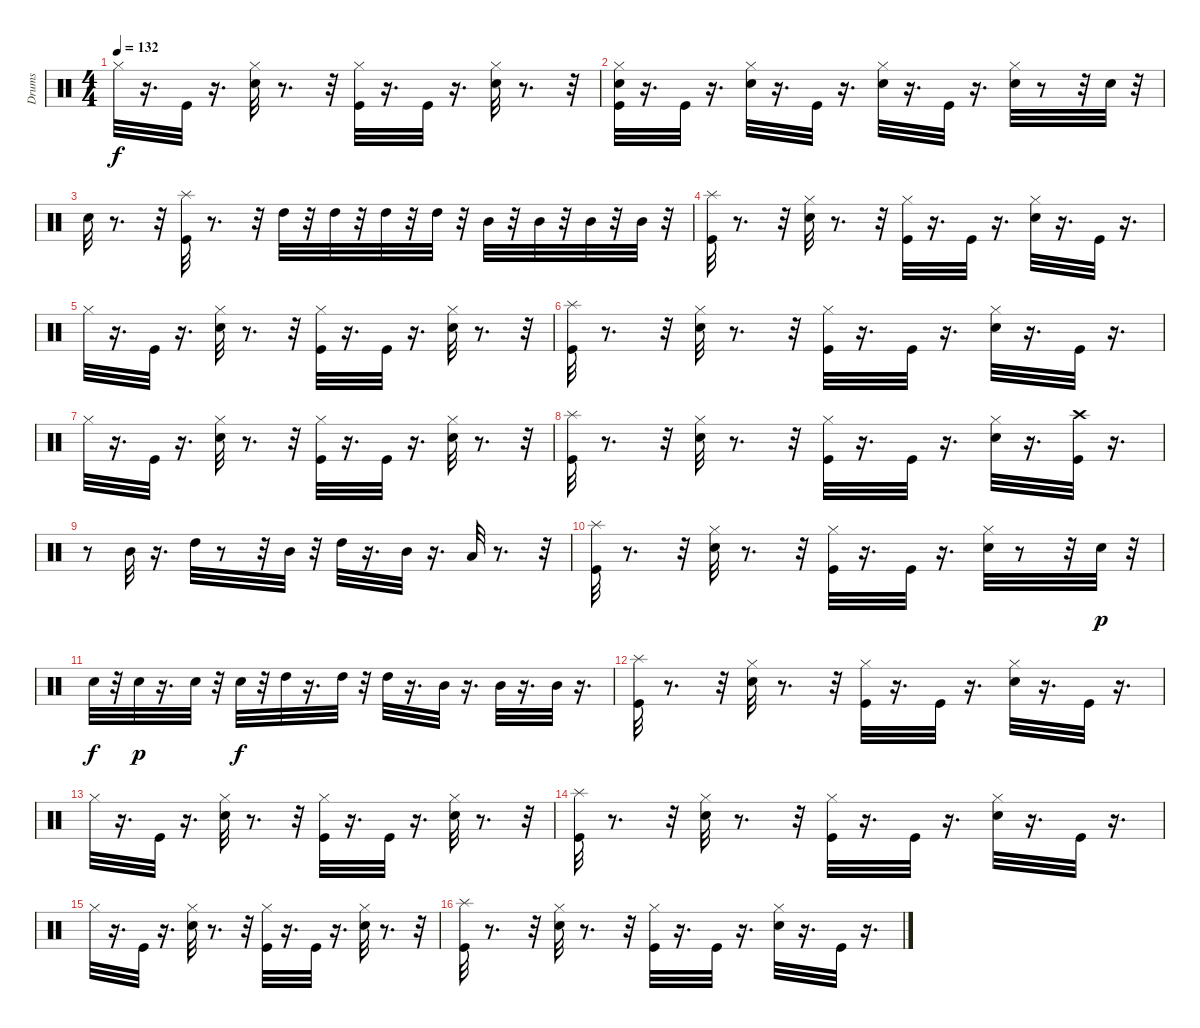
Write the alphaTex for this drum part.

\track ("Drums" "Drums") {instrument percussion}
\staff {score}
\articulation defaults
\ts (4 4)
\tempo 132
\clef neutral
\ks c "Hi-Hat (closed)".32{dy f}
r.16{d} "Kick (hit)".32 r.16{d} ("Hi-Hat (closed)" "Snare (hit) 2").32 r.8{d} r.32 ("Kick (hit)" "Hi-Hat (closed)").32 r.16{d} "Kick (hit)".32 r.16{d} ("Hi-Hat (closed)" "Snare (hit) 2").32 r.8{d} r.32 |
("Hi-Hat (closed)" "Snare (hit) 2" "Kick (hit)").32 r.16{d} "Kick (hit)".32 r.16{d} ("Hi-Hat (closed)" "Snare (hit) 2").32 r.16{d} "Kick (hit)".32 r.16{d} ("Hi-Hat (closed)" "Snare (hit) 2").32 r.16{d} "Kick (hit)".32 r.16{d} ("Hi-Hat (closed)" "Snare (hit) 2").32 r.8 r.32 "Snare (hit) 2".32 r.32 |
"Snare (hit) 2".32 r.8{d} r.32 ("Kick (hit)" "Splash (hit)").32 r.8{d} r.32 "High Tom (hit)".32 r.32 "High Tom (hit)".32 r.32 "High Tom (hit)".32 r.32 "High Tom (hit)".32 r.32 "Mid Tom (hit)".32 r.32 "Mid Tom (hit)".32 r.32 "Mid Tom (hit)".32 r.32 "Mid Tom (hit)".32 r.32 |
("Splash (hit)" "Kick (hit)").32 r.8{d} r.32 ("Hi-Hat (closed)" "Snare (hit) 2").32 r.8{d} r.32 ("Kick (hit)" "Hi-Hat (closed)").32 r.16{d} "Kick (hit)".32 r.16{d} ("Hi-Hat (closed)" "Snare (hit) 2").32 r.16{d} "Kick (hit)".32 r.16{d} |
"Hi-Hat (closed)".32 r.16{d} "Kick (hit)".32 r.16{d} ("Hi-Hat (closed)" "Snare (hit) 2").32 r.8{d} r.32 ("Hi-Hat (closed)" "Kick (hit)").32 r.16{d} "Kick (hit)".32 r.16{d} ("Snare (hit) 2" "Hi-Hat (closed)").32 r.8{d} r.32 |
("Splash (hit)" "Kick (hit)").32 r.8{d} r.32 ("Hi-Hat (closed)" "Snare (hit) 2").32 r.8{d} r.32 ("Kick (hit)" "Hi-Hat (closed)").32 r.16{d} "Kick (hit)".32 r.16{d} ("Hi-Hat (closed)" "Snare (hit) 2").32 r.16{d} "Kick (hit)".32 r.16{d} |
"Hi-Hat (closed)".32 r.16{d} "Kick (hit)".32 r.16{d} ("Hi-Hat (closed)" "Snare (hit) 2").32 r.8{d} r.32 ("Hi-Hat (closed)" "Kick (hit)").32 r.16{d} "Kick (hit)".32 r.16{d} ("Hi-Hat (closed)" "Snare (hit) 2").32 r.8{d} r.32 |
("Splash (hit)" "Kick (hit)").32 r.8{d} r.32 ("Hi-Hat (closed)" "Snare (hit) 2").32 r.8{d} r.32 ("Kick (hit)" "Hi-Hat (closed)").32 r.16{d} "Kick (hit)".32 r.16{d} ("Hi-Hat (closed)" "Snare (hit) 2").32 r.16{d} ("Crash high (hit)" "Kick (hit)").32 r.16{d} |
r.8 "Mid Tom (hit)".32 r.16{d} "High Tom (hit)".32 r.8 r.32 "Mid Tom (hit)".32 r.32 "High Tom (hit)".32 r.16{d} "Mid Tom (hit)".32 r.16{d} "Low Tom (hit)".32 r.8{d} r.32 |
("Kick (hit)" "Splash (hit)").32 r.8{d} r.32 ("Hi-Hat (closed)" "Snare (hit) 2").32 r.8{d} r.32 ("Hi-Hat (closed)" "Kick (hit)").32 r.16{d} "Kick (hit)".32 r.16{d} ("Hi-Hat (closed)" "Snare (hit) 2").32 r.8 r.32 "Snare (hit) 2".32{dy p} r.32 |
"Snare (hit) 2".32{dy f} r.32 "Snare (hit) 2".32{dy p} r.16{d} "Snare (hit) 2".32 r.32 "Snare (hit) 2".32{dy f} r.32 "High Tom (hit)".32 r.16{d} "High Tom (hit)".32 r.32 "High Tom (hit)".32 r.16{d} "Mid Tom (hit)".32 r.16{d} "Mid Tom (hit)".32 r.16{d} "Mid Tom (hit)".32 r.16{d} |
("Splash (hit)" "Kick (hit)").32 r.8{d} r.32 ("Hi-Hat (closed)" "Snare (hit) 2").32 r.8{d} r.32 ("Kick (hit)" "Hi-Hat (closed)").32 r.16{d} "Kick (hit)".32 r.16{d} ("Hi-Hat (closed)" "Snare (hit) 2").32 r.16{d} "Kick (hit)".32 r.16{d} |
"Hi-Hat (closed)".32 r.16{d} "Kick (hit)".32 r.16{d} ("Hi-Hat (closed)" "Snare (hit) 2").32 r.8{d} r.32 ("Hi-Hat (closed)" "Kick (hit)").32 r.16{d} "Kick (hit)".32 r.16{d} ("Snare (hit) 2" "Hi-Hat (closed)").32 r.8{d} r.32 |
("Splash (hit)" "Kick (hit)").32 r.8{d} r.32 ("Hi-Hat (closed)" "Snare (hit) 2").32 r.8{d} r.32 ("Kick (hit)" "Hi-Hat (closed)").32 r.16{d} "Kick (hit)".32 r.16{d} ("Hi-Hat (closed)" "Snare (hit) 2").32 r.16{d} "Kick (hit)".32 r.16{d} |
"Hi-Hat (closed)".32 r.16{d} "Kick (hit)".32 r.16{d} ("Hi-Hat (closed)" "Snare (hit) 2").32 r.8{d} r.32 ("Hi-Hat (closed)" "Kick (hit)").32 r.16{d} "Kick (hit)".32 r.16{d} ("Snare (hit) 2" "Hi-Hat (closed)").32 r.8{d} r.32 |
("Splash (hit)" "Kick (hit)").32 r.8{d} r.32 ("Hi-Hat (closed)" "Snare (hit) 2").32 r.8{d} r.32 ("Kick (hit)" "Hi-Hat (closed)").32 r.16{d} "Kick (hit)".32 r.16{d} ("Hi-Hat (closed)" "Snare (hit) 2").32 r.16{d} "Kick (hit)".32 r.16{d}
